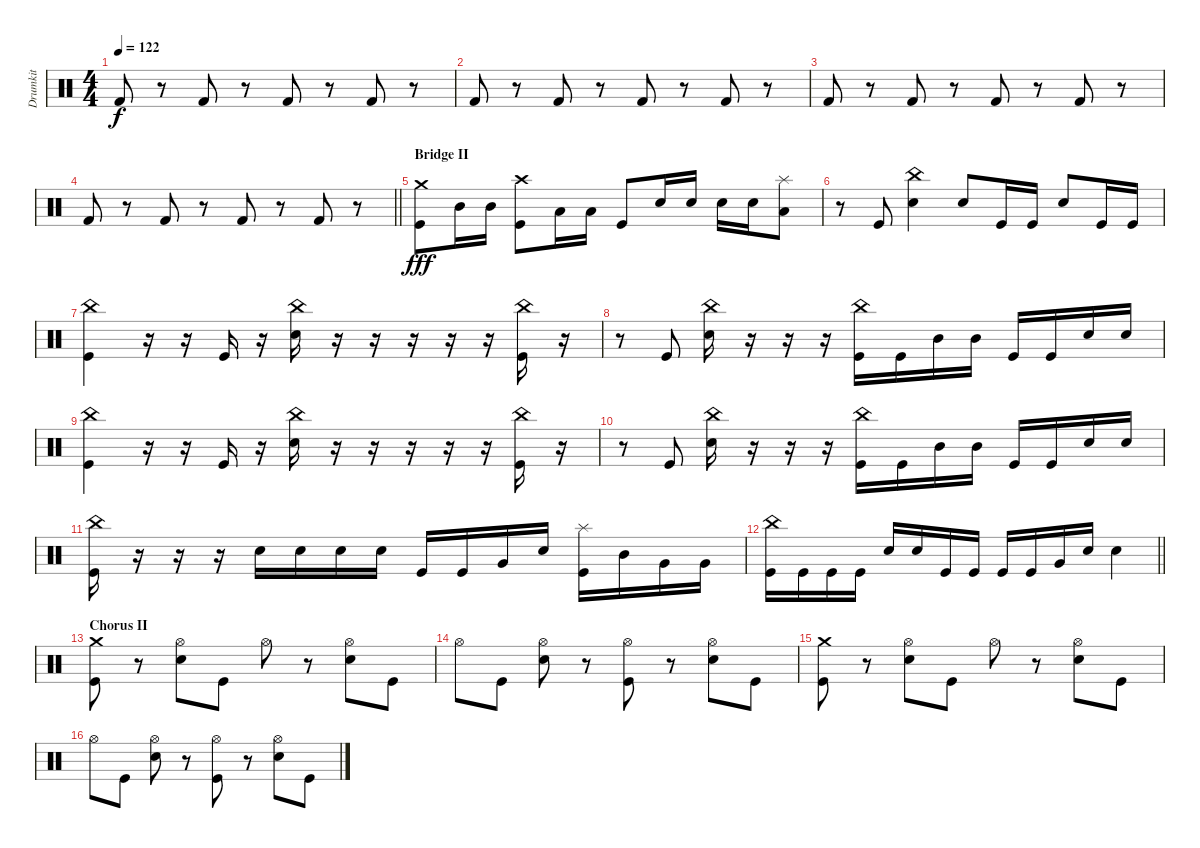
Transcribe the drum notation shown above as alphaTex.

\track ("Drumkit" "Drumkit") {instrument percussion}
\staff {score}
\articulation defaults
\ts (4 4)
\tempo 122
\clef neutral
\ks c "Kick (hit) 2".8{dy f}
r.8 "Kick (hit) 2".8 r.8 "Kick (hit) 2".8 r.8 "Kick (hit) 2".8 r.8 |
"Kick (hit) 2".8 r.8 "Kick (hit) 2".8 r.8 "Kick (hit) 2".8 r.8 "Kick (hit) 2".8 r.8 |
"Kick (hit) 2".8 r.8 "Kick (hit) 2".8 r.8 "Kick (hit) 2".8 r.8 "Kick (hit) 2".8 r.8 |
\barLineRight lightlight "Kick (hit) 2".8
r.8 "Kick (hit) 2".8 r.8 "Kick (hit) 2".8 r.8 "Kick (hit) 2".8 r.8 |
\section ("" "Bridge II")
("Kick (hit)" "Crash medium (hit)").8{dy fff} "Mid Tom (hit)".16 "Mid Tom (hit)".16 ("Kick (hit)" "Crash high (hit)").8 "Low Tom (hit)".16 "Low Tom (hit)".16 "Kick (hit)".8 "Snare (hit) 2".16 "Snare (hit) 2".16 "Snare (hit) 2".16 "Snare (hit) 2".16 ("Low Floor Tom (hit)" "Splash (hit)").8 |
r.8 "Kick (hit)".8 ("Snare (hit) 2" "China (hit)").4 "Snare (hit) 2".8 "Kick (hit)".16 "Kick (hit)".16 "Snare (hit) 2".8 "Kick (hit)".16 "Kick (hit)".16 |
("Kick (hit)" "China (hit)").4 r.16 r.16 "Kick (hit)".16 r.16 ("China (hit)" "Snare (hit) 2").16 r.16 r.16 r.16 r.16 r.16 ("Kick (hit)" "China (hit)").16 r.16 |
r.8 "Kick (hit)".8 ("Snare (hit) 2" "China (hit)").16 r.16 r.16 r.16 ("Kick (hit)" "China (hit)").16 "Kick (hit)".16 "Mid Tom (hit)".16 "Mid Tom (hit)".16 "Kick (hit)".16 "Kick (hit)".16 "Snare (hit) 2".16 "Snare (hit) 2".16 |
("Kick (hit)" "China (hit)").4 r.16 r.16 "Kick (hit)".16 r.16 ("China (hit)" "Snare (hit) 2").16 r.16 r.16 r.16 r.16 r.16 ("Kick (hit)" "China (hit)").16 r.16 |
r.8 "Kick (hit)".8 ("Snare (hit) 2" "China (hit)").16 r.16 r.16 r.16 ("Kick (hit)" "China (hit)").16 "Kick (hit)".16 "Mid Tom (hit)".16 "Mid Tom (hit)".16 "Kick (hit)".16 "Kick (hit)".16 "Snare (hit) 2".16 "Snare (hit) 2".16 |
("Kick (hit)" "China (hit)").16 r.16 r.16 r.16 "Snare (hit) 2".16 "Snare (hit) 2".16 "Snare (hit) 2".16 "Snare (hit) 2".16 "Kick (hit)".16 "Kick (hit)".16 "Very Low Tom (hit)".16 "Snare (hit) 2".16 ("Kick (hit)" "Splash (hit)").16 "Mid Tom (hit)".16 "Very Low Tom (hit)".16 "Very Low Tom (hit)".16 |
\barLineRight lightlight
("Kick (hit)" "China (hit)").16 "Kick (hit)".16 "Kick (hit)".16 "Kick (hit)".16 "Snare (hit) 2".16 "Snare (hit) 2".16 "Kick (hit)".16 "Kick (hit)".16 "Kick (hit)".16 "Kick (hit)".16 "Very Low Tom (hit)".16 "Snare (hit) 2".16 "Snare (hit) 2".4 |
\section ("" "Chorus II")
("Kick (hit)" "Crash medium (hit)").8 r.8 ("Hi-Hat (open)" "Snare (hit) 2").8 "Kick (hit)".8 "Hi-Hat (open)".8 r.8 ("Hi-Hat (open)" "Snare (hit) 2").8 "Kick (hit)".8 |
"Hi-Hat (open)".8 "Kick (hit)".8 ("Hi-Hat (open)" "Snare (hit) 2").8 r.8 ("Hi-Hat (open)" "Kick (hit)").8 r.8 ("Hi-Hat (open)" "Snare (hit) 2").8 "Kick (hit)".8 |
("Kick (hit)" "Crash medium (hit)").8 r.8 ("Hi-Hat (open)" "Snare (hit) 2").8 "Kick (hit)".8 "Hi-Hat (open)".8 r.8 ("Hi-Hat (open)" "Snare (hit) 2").8 "Kick (hit)".8 |
"Hi-Hat (open)".8 "Kick (hit)".8 ("Hi-Hat (open)" "Snare (hit) 2").8 r.8 ("Hi-Hat (open)" "Kick (hit)").8 r.8 ("Hi-Hat (open)" "Snare (hit) 2").8 "Kick (hit)".8
